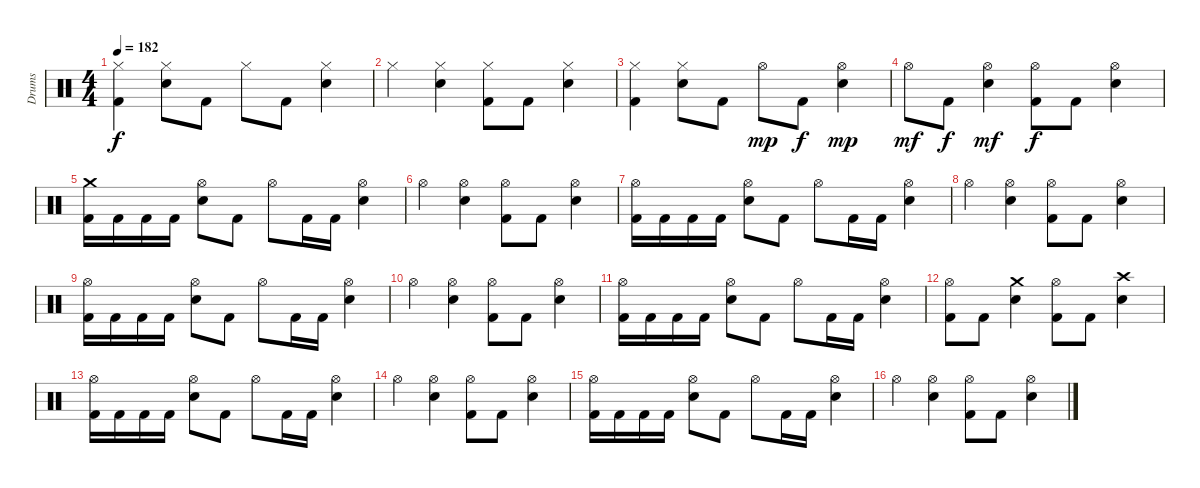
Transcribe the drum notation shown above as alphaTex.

\track ("Drums" "Drums") {instrument percussion}
\staff {score}
\articulation defaults
\ts (4 4)
\tempo 182
\clef neutral
\ks c
("Hi-Hat (closed)" "Kick (hit) 2").4{dy f} ("Hi-Hat (closed)" "Snare (hit) 2").8 "Kick (hit) 2".8 "Hi-Hat (closed)".8 "Kick (hit) 2".8 ("Hi-Hat (closed)" "Snare (hit) 2").4 |
"Hi-Hat (closed)".4 ("Hi-Hat (closed)" "Snare (hit) 2").4 ("Hi-Hat (closed)" "Kick (hit) 2").8 "Kick (hit) 2".8 ("Hi-Hat (closed)" "Snare (hit) 2").4 |
("Hi-Hat (closed)" "Kick (hit) 2").4 ("Hi-Hat (closed)" "Snare (hit) 2").8 "Kick (hit) 2".8 "Hi-Hat (open)".8{dy mp} "Kick (hit) 2".8{dy f} ("Hi-Hat (open)" "Snare (hit) 2").4{dy mp} |
"Hi-Hat (open)".8{dy mf} "Kick (hit) 2".8{dy f} ("Hi-Hat (open)" "Snare (hit) 2").4{dy mf} ("Hi-Hat (open)" "Kick (hit) 2").8{dy f} "Kick (hit) 2".8 ("Hi-Hat (open)" "Snare (hit) 2").4 |
("Crash medium (hit)" "Kick (hit) 2").16 "Kick (hit) 2".16 "Kick (hit) 2".16 "Kick (hit) 2".16 ("Hi-Hat (open)" "Snare (hit) 2").8 "Kick (hit) 2".8 "Hi-Hat (open)".8 "Kick (hit) 2".16 "Kick (hit) 2".16 ("Hi-Hat (open)" "Snare (hit) 2").4 |
"Hi-Hat (open)".4 ("Hi-Hat (open)" "Snare (hit) 2").4 ("Hi-Hat (open)" "Kick (hit) 2").8 "Kick (hit) 2".8 ("Hi-Hat (open)" "Snare (hit) 2").4 |
("Hi-Hat (open)" "Kick (hit) 2").16 "Kick (hit) 2".16 "Kick (hit) 2".16 "Kick (hit) 2".16 ("Hi-Hat (open)" "Snare (hit) 2").8 "Kick (hit) 2".8 "Hi-Hat (open)".8 "Kick (hit) 2".16 "Kick (hit) 2".16 ("Hi-Hat (open)" "Snare (hit) 2").4 |
"Hi-Hat (open)".4 ("Hi-Hat (open)" "Snare (hit) 2").4 ("Hi-Hat (open)" "Kick (hit) 2").8 "Kick (hit) 2".8 ("Hi-Hat (open)" "Snare (hit) 2").4 |
("Hi-Hat (open)" "Kick (hit) 2").16 "Kick (hit) 2".16 "Kick (hit) 2".16 "Kick (hit) 2".16 ("Hi-Hat (open)" "Snare (hit) 2").8 "Kick (hit) 2".8 "Hi-Hat (open)".8 "Kick (hit) 2".16 "Kick (hit) 2".16 ("Hi-Hat (open)" "Snare (hit) 2").4 |
"Hi-Hat (open)".4 ("Hi-Hat (open)" "Snare (hit) 2").4 ("Hi-Hat (open)" "Kick (hit) 2").8 "Kick (hit) 2".8 ("Hi-Hat (open)" "Snare (hit) 2").4 |
("Hi-Hat (open)" "Kick (hit) 2").16 "Kick (hit) 2".16 "Kick (hit) 2".16 "Kick (hit) 2".16 ("Hi-Hat (open)" "Snare (hit) 2").8 "Kick (hit) 2".8 "Hi-Hat (open)".8 "Kick (hit) 2".16 "Kick (hit) 2".16 ("Hi-Hat (open)" "Snare (hit) 2").4 |
("Hi-Hat (open)" "Kick (hit) 2").8 "Kick (hit) 2".8 ("Crash medium (hit)" "Snare (hit) 2").4 ("Hi-Hat (open)" "Kick (hit) 2").8 "Kick (hit) 2".8 ("Crash high (hit)" "Snare (hit) 2").4 |
("Hi-Hat (open)" "Kick (hit) 2").16 "Kick (hit) 2".16 "Kick (hit) 2".16 "Kick (hit) 2".16 ("Hi-Hat (open)" "Snare (hit) 2").8 "Kick (hit) 2".8 "Hi-Hat (open)".8 "Kick (hit) 2".16 "Kick (hit) 2".16 ("Hi-Hat (open)" "Snare (hit) 2").4 |
"Hi-Hat (open)".4 ("Hi-Hat (open)" "Snare (hit) 2").4 ("Hi-Hat (open)" "Kick (hit) 2").8 "Kick (hit) 2".8 ("Hi-Hat (open)" "Snare (hit) 2").4 |
("Hi-Hat (open)" "Kick (hit) 2").16 "Kick (hit) 2".16 "Kick (hit) 2".16 "Kick (hit) 2".16 ("Hi-Hat (open)" "Snare (hit) 2").8 "Kick (hit) 2".8 "Hi-Hat (open)".8 "Kick (hit) 2".16 "Kick (hit) 2".16 ("Hi-Hat (open)" "Snare (hit) 2").4 |
"Hi-Hat (open)".4 ("Hi-Hat (open)" "Snare (hit) 2").4 ("Hi-Hat (open)" "Kick (hit) 2").8 "Kick (hit) 2".8 ("Hi-Hat (open)" "Snare (hit) 2").4
